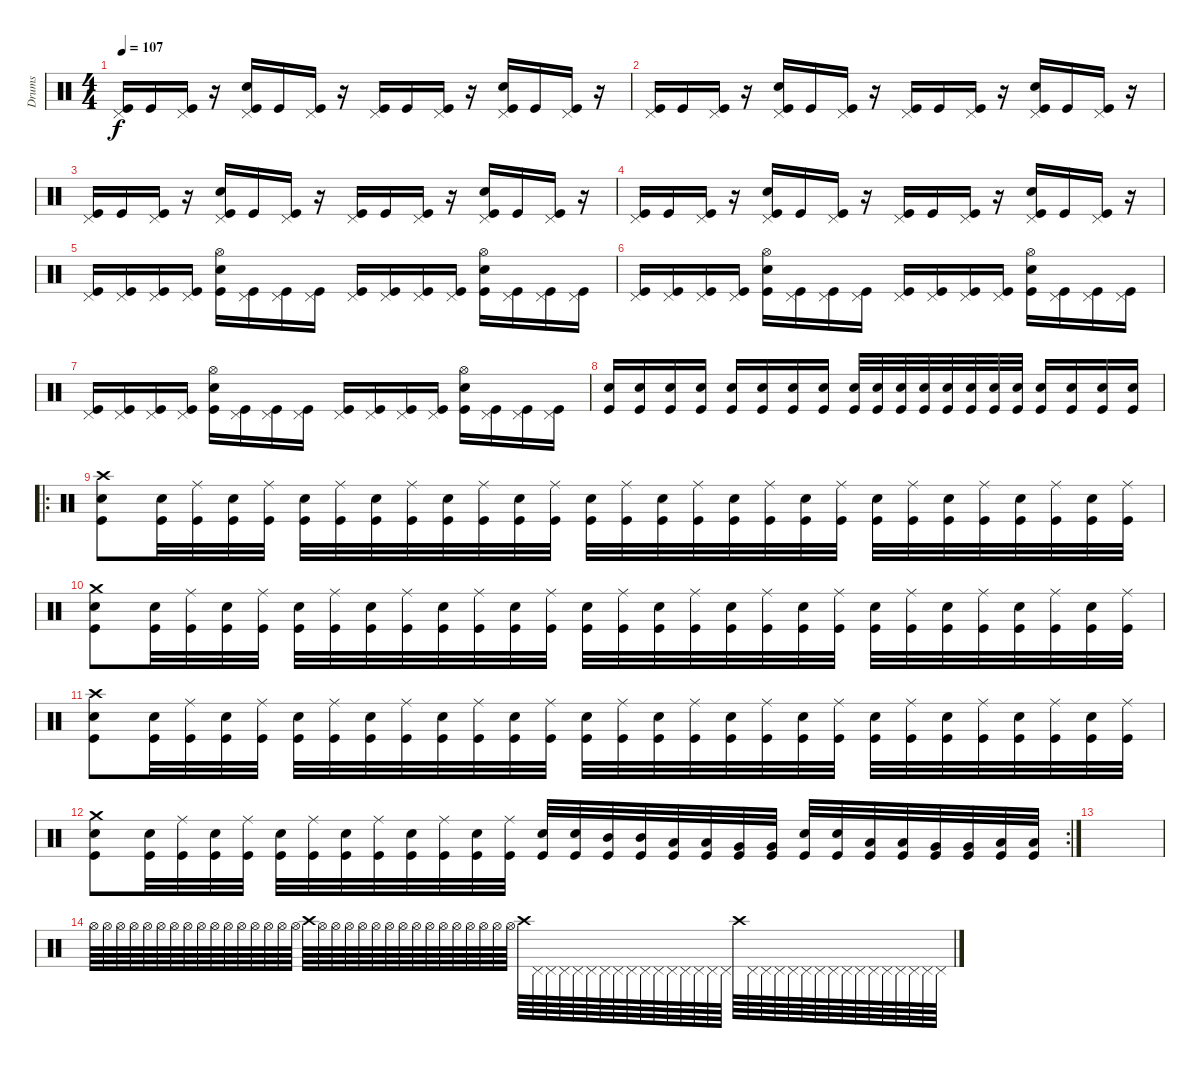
\track ("Drums" "Drums") {instrument percussion}
\staff
\articulation defaults
\ts (4 4)
\tempo 107
\clef neutral
\ks c
("Pedal Hi-Hat (hit)" "Kick (hit)").16{dy f} "Kick (hit)".16 ("Pedal Hi-Hat (hit)" "Kick (hit)").16 r.16 ("Pedal Hi-Hat (hit)" "Electric Snare (hit)" "Kick (hit)").16 "Kick (hit)".16 ("Pedal Hi-Hat (hit)" "Kick (hit)").16 r.16 ("Pedal Hi-Hat (hit)" "Kick (hit)").16 "Kick (hit)".16 ("Pedal Hi-Hat (hit)" "Kick (hit)").16 r.16 ("Pedal Hi-Hat (hit)" "Electric Snare (hit)" "Kick (hit)").16 "Kick (hit)".16 ("Pedal Hi-Hat (hit)" "Kick (hit)").16 r.16 |
("Pedal Hi-Hat (hit)" "Kick (hit)").16 "Kick (hit)".16 ("Pedal Hi-Hat (hit)" "Kick (hit)").16 r.16 ("Pedal Hi-Hat (hit)" "Electric Snare (hit)" "Kick (hit)").16 "Kick (hit)".16 ("Pedal Hi-Hat (hit)" "Kick (hit)").16 r.16 ("Pedal Hi-Hat (hit)" "Kick (hit)").16 "Kick (hit)".16 ("Pedal Hi-Hat (hit)" "Kick (hit)").16 r.16 ("Pedal Hi-Hat (hit)" "Electric Snare (hit)" "Kick (hit)").16 "Kick (hit)".16 ("Pedal Hi-Hat (hit)" "Kick (hit)").16 r.16 |
("Pedal Hi-Hat (hit)" "Kick (hit)").16 "Kick (hit)".16 ("Pedal Hi-Hat (hit)" "Kick (hit)").16 r.16 ("Pedal Hi-Hat (hit)" "Electric Snare (hit)" "Kick (hit)").16 "Kick (hit)".16 ("Pedal Hi-Hat (hit)" "Kick (hit)").16 r.16 ("Pedal Hi-Hat (hit)" "Kick (hit)").16 "Kick (hit)".16 ("Pedal Hi-Hat (hit)" "Kick (hit)").16 r.16 ("Pedal Hi-Hat (hit)" "Electric Snare (hit)" "Kick (hit)").16 "Kick (hit)".16 ("Pedal Hi-Hat (hit)" "Kick (hit)").16 r.16 |
("Pedal Hi-Hat (hit)" "Kick (hit)").16 "Kick (hit)".16 ("Pedal Hi-Hat (hit)" "Kick (hit)").16 r.16 ("Pedal Hi-Hat (hit)" "Electric Snare (hit)" "Kick (hit)").16 "Kick (hit)".16 ("Pedal Hi-Hat (hit)" "Kick (hit)").16 r.16 ("Pedal Hi-Hat (hit)" "Kick (hit)").16 "Kick (hit)".16 ("Pedal Hi-Hat (hit)" "Kick (hit)").16 r.16 ("Pedal Hi-Hat (hit)" "Electric Snare (hit)" "Kick (hit)").16 "Kick (hit)".16 ("Pedal Hi-Hat (hit)" "Kick (hit)").16 r.16 |
("Pedal Hi-Hat (hit)" "Kick (hit)").16 ("Pedal Hi-Hat (hit)" "Kick (hit)").16 ("Pedal Hi-Hat (hit)" "Kick (hit)").16 ("Pedal Hi-Hat (hit)" "Kick (hit)").16 ("Hi-Hat (open)" "Electric Snare (hit)" "Kick (hit)").16 ("Pedal Hi-Hat (hit)" "Kick (hit)").16 ("Pedal Hi-Hat (hit)" "Kick (hit)").16 ("Pedal Hi-Hat (hit)" "Kick (hit)").16 ("Pedal Hi-Hat (hit)" "Kick (hit)").16 ("Pedal Hi-Hat (hit)" "Kick (hit)").16 ("Pedal Hi-Hat (hit)" "Kick (hit)").16 ("Pedal Hi-Hat (hit)" "Kick (hit)").16 ("Hi-Hat (open)" "Electric Snare (hit)" "Kick (hit)").16 ("Pedal Hi-Hat (hit)" "Kick (hit)").16 ("Pedal Hi-Hat (hit)" "Kick (hit)").16 ("Pedal Hi-Hat (hit)" "Kick (hit)").16 |
("Pedal Hi-Hat (hit)" "Kick (hit)").16 ("Pedal Hi-Hat (hit)" "Kick (hit)").16 ("Pedal Hi-Hat (hit)" "Kick (hit)").16 ("Pedal Hi-Hat (hit)" "Kick (hit)").16 ("Hi-Hat (open)" "Electric Snare (hit)" "Kick (hit)").16 ("Pedal Hi-Hat (hit)" "Kick (hit)").16 ("Pedal Hi-Hat (hit)" "Kick (hit)").16 ("Pedal Hi-Hat (hit)" "Kick (hit)").16 ("Pedal Hi-Hat (hit)" "Kick (hit)").16 ("Pedal Hi-Hat (hit)" "Kick (hit)").16 ("Pedal Hi-Hat (hit)" "Kick (hit)").16 ("Pedal Hi-Hat (hit)" "Kick (hit)").16 ("Hi-Hat (open)" "Electric Snare (hit)" "Kick (hit)").16 ("Pedal Hi-Hat (hit)" "Kick (hit)").16 ("Pedal Hi-Hat (hit)" "Kick (hit)").16 ("Pedal Hi-Hat (hit)" "Kick (hit)").16 |
("Pedal Hi-Hat (hit)" "Kick (hit)").16 ("Pedal Hi-Hat (hit)" "Kick (hit)").16 ("Pedal Hi-Hat (hit)" "Kick (hit)").16 ("Pedal Hi-Hat (hit)" "Kick (hit)").16 ("Hi-Hat (open)" "Electric Snare (hit)" "Kick (hit)").16 ("Pedal Hi-Hat (hit)" "Kick (hit)").16 ("Pedal Hi-Hat (hit)" "Kick (hit)").16 ("Pedal Hi-Hat (hit)" "Kick (hit)").16 ("Pedal Hi-Hat (hit)" "Kick (hit)").16 ("Pedal Hi-Hat (hit)" "Kick (hit)").16 ("Pedal Hi-Hat (hit)" "Kick (hit)").16 ("Pedal Hi-Hat (hit)" "Kick (hit)").16 ("Hi-Hat (open)" "Electric Snare (hit)" "Kick (hit)").16 ("Pedal Hi-Hat (hit)" "Kick (hit)").16 ("Pedal Hi-Hat (hit)" "Kick (hit)").16 ("Pedal Hi-Hat (hit)" "Kick (hit)").16 |
("Electric Snare (hit)" "Kick (hit)").16 ("Electric Snare (hit)" "Kick (hit)").16 ("Electric Snare (hit)" "Kick (hit)").16 ("Electric Snare (hit)" "Kick (hit)").16 ("Electric Snare (hit)" "Kick (hit)").16 ("Electric Snare (hit)" "Kick (hit)").16 ("Electric Snare (hit)" "Kick (hit)").16 ("Electric Snare (hit)" "Kick (hit)").16 ("Electric Snare (hit)" "Kick (hit)").32 ("Electric Snare (hit)" "Kick (hit)").32 ("Electric Snare (hit)" "Kick (hit)").32 ("Electric Snare (hit)" "Kick (hit)").32 ("Electric Snare (hit)" "Kick (hit)").32 ("Electric Snare (hit)" "Kick (hit)").32 ("Electric Snare (hit)" "Kick (hit)").32 ("Electric Snare (hit)" "Kick (hit)").32 ("Electric Snare (hit)" "Kick (hit)").16 ("Electric Snare (hit)" "Kick (hit)").16 ("Electric Snare (hit)" "Kick (hit)").16 ("Electric Snare (hit)" "Kick (hit)").16 |
\ro
("Crash high (hit)" "Electric Snare (hit)" "Kick (hit)").8 ("Electric Snare (hit)" "Kick (hit)").32 ("Ride (middle)" "Kick (hit)").32 ("Electric Snare (hit)" "Kick (hit)").32 ("Ride (middle)" "Kick (hit)").32 ("Electric Snare (hit)" "Kick (hit)").32 ("Ride (middle)" "Kick (hit)").32 ("Electric Snare (hit)" "Kick (hit)").32 ("Ride (middle)" "Kick (hit)").32 ("Electric Snare (hit)" "Kick (hit)").32 ("Ride (middle)" "Kick (hit)").32 ("Electric Snare (hit)" "Kick (hit)").32 ("Ride (middle)" "Kick (hit)").32 ("Electric Snare (hit)" "Kick (hit)").32 ("Ride (middle)" "Kick (hit)").32 ("Electric Snare (hit)" "Kick (hit)").32 ("Ride (middle)" "Kick (hit)").32 ("Electric Snare (hit)" "Kick (hit)").32 ("Ride (middle)" "Kick (hit)").32 ("Electric Snare (hit)" "Kick (hit)").32 ("Ride (middle)" "Kick (hit)").32 ("Electric Snare (hit)" "Kick (hit)").32 ("Ride (middle)" "Kick (hit)").32 ("Electric Snare (hit)" "Kick (hit)").32 ("Ride (middle)" "Kick (hit)").32 ("Electric Snare (hit)" "Kick (hit)").32 ("Ride (middle)" "Kick (hit)").32 ("Electric Snare (hit)" "Kick (hit)").32 ("Ride (middle)" "Kick (hit)").32 |
("Crash medium (hit)" "Electric Snare (hit)" "Kick (hit)").8 ("Electric Snare (hit)" "Kick (hit)").32 ("Ride (middle)" "Kick (hit)").32 ("Electric Snare (hit)" "Kick (hit)").32 ("Ride (middle)" "Kick (hit)").32 ("Electric Snare (hit)" "Kick (hit)").32 ("Ride (middle)" "Kick (hit)").32 ("Electric Snare (hit)" "Kick (hit)").32 ("Ride (middle)" "Kick (hit)").32 ("Electric Snare (hit)" "Kick (hit)").32 ("Ride (middle)" "Kick (hit)").32 ("Electric Snare (hit)" "Kick (hit)").32 ("Ride (middle)" "Kick (hit)").32 ("Electric Snare (hit)" "Kick (hit)").32 ("Ride (middle)" "Kick (hit)").32 ("Electric Snare (hit)" "Kick (hit)").32 ("Ride (middle)" "Kick (hit)").32 ("Electric Snare (hit)" "Kick (hit)").32 ("Ride (middle)" "Kick (hit)").32 ("Electric Snare (hit)" "Kick (hit)").32 ("Ride (middle)" "Kick (hit)").32 ("Electric Snare (hit)" "Kick (hit)").32 ("Ride (middle)" "Kick (hit)").32 ("Electric Snare (hit)" "Kick (hit)").32 ("Ride (middle)" "Kick (hit)").32 ("Electric Snare (hit)" "Kick (hit)").32 ("Ride (middle)" "Kick (hit)").32 ("Electric Snare (hit)" "Kick (hit)").32 ("Ride (middle)" "Kick (hit)").32 |
("Crash high (hit)" "Electric Snare (hit)" "Kick (hit)").8 ("Electric Snare (hit)" "Kick (hit)").32 ("Ride (middle)" "Kick (hit)").32 ("Electric Snare (hit)" "Kick (hit)").32 ("Ride (middle)" "Kick (hit)").32 ("Electric Snare (hit)" "Kick (hit)").32 ("Ride (middle)" "Kick (hit)").32 ("Electric Snare (hit)" "Kick (hit)").32 ("Ride (middle)" "Kick (hit)").32 ("Electric Snare (hit)" "Kick (hit)").32 ("Ride (middle)" "Kick (hit)").32 ("Electric Snare (hit)" "Kick (hit)").32 ("Ride (middle)" "Kick (hit)").32 ("Electric Snare (hit)" "Kick (hit)").32 ("Ride (middle)" "Kick (hit)").32 ("Electric Snare (hit)" "Kick (hit)").32 ("Ride (middle)" "Kick (hit)").32 ("Electric Snare (hit)" "Kick (hit)").32 ("Ride (middle)" "Kick (hit)").32 ("Electric Snare (hit)" "Kick (hit)").32 ("Ride (middle)" "Kick (hit)").32 ("Electric Snare (hit)" "Kick (hit)").32 ("Ride (middle)" "Kick (hit)").32 ("Electric Snare (hit)" "Kick (hit)").32 ("Ride (middle)" "Kick (hit)").32 ("Electric Snare (hit)" "Kick (hit)").32 ("Ride (middle)" "Kick (hit)").32 ("Electric Snare (hit)" "Kick (hit)").32 ("Ride (middle)" "Kick (hit)").32 |
\rc 2
("Crash medium (hit)" "Electric Snare (hit)" "Kick (hit)").8 ("Electric Snare (hit)" "Kick (hit)").32 ("Ride (middle)" "Kick (hit)").32 ("Electric Snare (hit)" "Kick (hit)").32 ("Ride (middle)" "Kick (hit)").32 ("Electric Snare (hit)" "Kick (hit)").32 ("Ride (middle)" "Kick (hit)").32 ("Electric Snare (hit)" "Kick (hit)").32 ("Ride (middle)" "Kick (hit)").32 ("Electric Snare (hit)" "Kick (hit)").32 ("Ride (middle)" "Kick (hit)").32 ("Electric Snare (hit)" "Kick (hit)").32 ("Ride (middle)" "Kick (hit)").32 ("Electric Snare (hit)" "Kick (hit)").32 ("Electric Snare (hit)" "Kick (hit)").32 ("Mid Tom (hit)" "Kick (hit)").32 ("Mid Tom (hit)" "Kick (hit)").32 ("Low Tom (hit)" "Kick (hit)").32 ("Low Tom (hit)" "Kick (hit)").32 ("Very Low Tom (hit)" "Kick (hit)").32 ("Very Low Tom (hit)" "Kick (hit)").32 ("Electric Snare (hit)" "Kick (hit)").32 ("Electric Snare (hit)" "Kick (hit)").32 ("Low Tom (hit)" "Kick (hit)").32 ("Low Tom (hit)" "Kick (hit)").32 ("Very Low Tom (hit)" "Kick (hit)").32 ("Very Low Tom (hit)" "Kick (hit)").32 ("Low Floor Tom (hit)" "Kick (hit)").32 ("Low Floor Tom (hit)" "Kick (hit)").32 |
|
"Hi-Hat (open)".64 "Hi-Hat (open)".64 "Hi-Hat (open)".64 "Hi-Hat (open)".64 "Hi-Hat (open)".64 "Hi-Hat (open)".64 "Hi-Hat (open)".64 "Hi-Hat (open)".64 "Hi-Hat (open)".64 "Hi-Hat (open)".64 "Hi-Hat (open)".64 "Hi-Hat (open)".64 "Hi-Hat (open)".64 "Hi-Hat (open)".64 "Hi-Hat (open)".64 "Hi-Hat (open)".64 "Crash high (hit)".64 "Hi-Hat (open)".64 "Hi-Hat (open)".64 "Hi-Hat (open)".64 "Hi-Hat (open)".64 "Hi-Hat (open)".64 "Hi-Hat (open)".64 "Hi-Hat (open)".64 "Hi-Hat (open)".64 "Hi-Hat (open)".64 "Hi-Hat (open)".64 "Hi-Hat (open)".64 "Hi-Hat (open)".64 "Hi-Hat (open)".64 "Hi-Hat (open)".64 "Hi-Hat (open)".64 "Crash high (hit)".64 "Pedal Hi-Hat (hit)".64 "Pedal Hi-Hat (hit)".64 "Pedal Hi-Hat (hit)".64 "Pedal Hi-Hat (hit)".64 "Pedal Hi-Hat (hit)".64 "Pedal Hi-Hat (hit)".64 "Pedal Hi-Hat (hit)".64 "Pedal Hi-Hat (hit)".64 "Pedal Hi-Hat (hit)".64 "Pedal Hi-Hat (hit)".64 "Pedal Hi-Hat (hit)".64 "Pedal Hi-Hat (hit)".64 "Pedal Hi-Hat (hit)".64 "Pedal Hi-Hat (hit)".64 "Pedal Hi-Hat (hit)".64 "Crash high (hit)".64 "Pedal Hi-Hat (hit)".64 "Pedal Hi-Hat (hit)".64 "Pedal Hi-Hat (hit)".64 "Pedal Hi-Hat (hit)".64 "Pedal Hi-Hat (hit)".64 "Pedal Hi-Hat (hit)".64 "Pedal Hi-Hat (hit)".64 "Pedal Hi-Hat (hit)".64 "Pedal Hi-Hat (hit)".64 "Pedal Hi-Hat (hit)".64 "Pedal Hi-Hat (hit)".64 "Pedal Hi-Hat (hit)".64 "Pedal Hi-Hat (hit)".64 "Pedal Hi-Hat (hit)".64 "Pedal Hi-Hat (hit)".64
